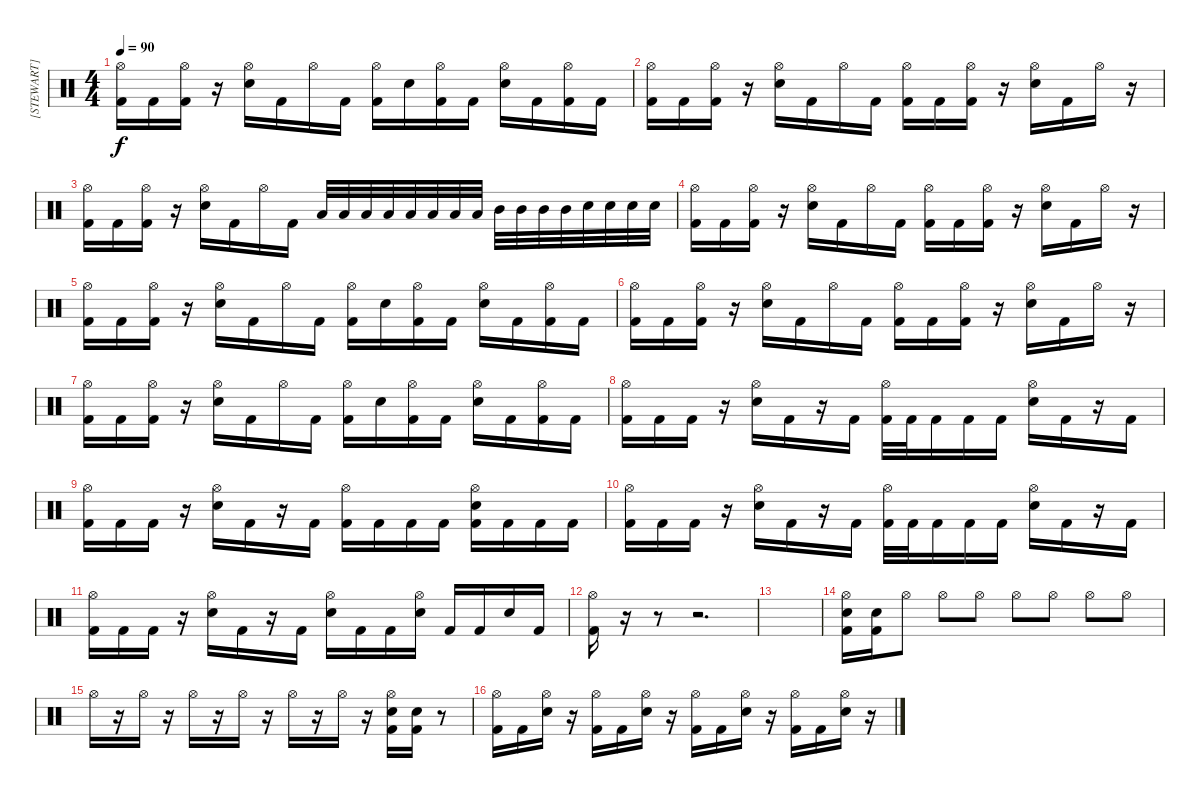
\track ("[STEWART]" "[STEWART]") {instrument percussion}
\staff {score}
\articulation defaults
\ts (4 4)
\tempo 90
\clef neutral
\ks c
("Hi-Hat (open)" "Kick (hit) 2").16{dy f} "Kick (hit) 2".16 ("Hi-Hat (open)" "Kick (hit) 2").16 r.16 ("Hi-Hat (open)" "Snare (hit) 2").16 "Kick (hit) 2".16 "Hi-Hat (open)".16 "Kick (hit) 2".16 ("Hi-Hat (open)" "Kick (hit) 2").16 "Snare (hit) 2".16 ("Hi-Hat (open)" "Kick (hit) 2").16 "Kick (hit) 2".16 ("Hi-Hat (open)" "Snare (hit) 2").16 "Kick (hit) 2".16 ("Hi-Hat (open)" "Kick (hit) 2").16 "Kick (hit) 2".16 |
("Hi-Hat (open)" "Kick (hit) 2").16 "Kick (hit) 2".16 ("Hi-Hat (open)" "Kick (hit) 2").16 r.16 ("Hi-Hat (open)" "Snare (hit) 2").16 "Kick (hit) 2".16 "Hi-Hat (open)".16 "Kick (hit) 2".16 ("Hi-Hat (open)" "Kick (hit) 2").16 "Kick (hit) 2".16 ("Hi-Hat (open)" "Kick (hit) 2").16 r.16 ("Hi-Hat (open)" "Snare (hit) 2").16 "Kick (hit) 2".16 "Hi-Hat (open)".16 r.16 |
("Hi-Hat (open)" "Kick (hit) 2").16 "Kick (hit) 2".16 ("Hi-Hat (open)" "Kick (hit) 2").16 r.16 ("Hi-Hat (open)" "Snare (hit) 2").16 "Kick (hit) 2".16 "Hi-Hat (open)".16 "Kick (hit) 2".16 "Low Floor Tom (hit)".32 "Low Floor Tom (hit)".32 "Low Floor Tom (hit)".32 "Low Floor Tom (hit)".32 "Low Tom (hit)".32 "Low Tom (hit)".32 "Low Tom (hit)".32 "Low Tom (hit)".32 "Mid Tom (hit)".32 "Mid Tom (hit)".32 "Mid Tom (hit)".32 "Mid Tom (hit)".32 "Snare (hit) 2".32 "Snare (hit) 2".32 "Snare (hit) 2".32 "Snare (hit) 2".32 |
("Hi-Hat (open)" "Kick (hit) 2").16 "Kick (hit) 2".16 ("Hi-Hat (open)" "Kick (hit) 2").16 r.16 ("Hi-Hat (open)" "Snare (hit) 2").16 "Kick (hit) 2".16 "Hi-Hat (open)".16 "Kick (hit) 2".16 ("Hi-Hat (open)" "Kick (hit) 2").16 "Kick (hit) 2".16 ("Hi-Hat (open)" "Kick (hit) 2").16 r.16 ("Hi-Hat (open)" "Snare (hit) 2").16 "Kick (hit) 2".16 "Hi-Hat (open)".16 r.16 |
("Hi-Hat (open)" "Kick (hit) 2").16 "Kick (hit) 2".16 ("Hi-Hat (open)" "Kick (hit) 2").16 r.16 ("Hi-Hat (open)" "Snare (hit) 2").16 "Kick (hit) 2".16 "Hi-Hat (open)".16 "Kick (hit) 2".16 ("Hi-Hat (open)" "Kick (hit) 2").16 "Snare (hit) 2".16 ("Hi-Hat (open)" "Kick (hit) 2").16 "Kick (hit) 2".16 ("Hi-Hat (open)" "Snare (hit) 2").16 "Kick (hit) 2".16 ("Hi-Hat (open)" "Kick (hit) 2").16 "Kick (hit) 2".16 |
("Hi-Hat (open)" "Kick (hit) 2").16 "Kick (hit) 2".16 ("Hi-Hat (open)" "Kick (hit) 2").16 r.16 ("Hi-Hat (open)" "Snare (hit) 2").16 "Kick (hit) 2".16 "Hi-Hat (open)".16 "Kick (hit) 2".16 ("Hi-Hat (open)" "Kick (hit) 2").16 "Kick (hit) 2".16 ("Hi-Hat (open)" "Kick (hit) 2").16 r.16 ("Hi-Hat (open)" "Snare (hit) 2").16 "Kick (hit) 2".16 "Hi-Hat (open)".16 r.16 |
("Hi-Hat (open)" "Kick (hit) 2").16 "Kick (hit) 2".16 ("Hi-Hat (open)" "Kick (hit) 2").16 r.16 ("Hi-Hat (open)" "Snare (hit) 2").16 "Kick (hit) 2".16 "Hi-Hat (open)".16 "Kick (hit) 2".16 ("Hi-Hat (open)" "Kick (hit) 2").16 "Snare (hit) 2".16 ("Hi-Hat (open)" "Kick (hit) 2").16 "Kick (hit) 2".16 ("Hi-Hat (open)" "Snare (hit) 2").16 "Kick (hit) 2".16 ("Hi-Hat (open)" "Kick (hit) 2").16 "Kick (hit) 2".16 |
("Hi-Hat (open)" "Kick (hit) 2").16 "Kick (hit) 2".16 "Kick (hit) 2".16 r.16 ("Hi-Hat (open)" "Snare (hit) 2").16 "Kick (hit) 2".16 r.16 "Kick (hit) 2".16 ("Hi-Hat (open)" "Kick (hit) 2").32 "Kick (hit) 2".32 "Kick (hit) 2".16 "Kick (hit) 2".16 "Kick (hit) 2".16 ("Hi-Hat (open)" "Snare (hit) 2").16 "Kick (hit) 2".16 r.16 "Kick (hit) 2".16 |
("Hi-Hat (open)" "Kick (hit) 2").16 "Kick (hit) 2".16 "Kick (hit) 2".16 r.16 ("Hi-Hat (open)" "Snare (hit) 2").16 "Kick (hit) 2".16 r.16 "Kick (hit) 2".16 ("Hi-Hat (open)" "Kick (hit) 2").16 "Kick (hit) 2".16 "Kick (hit) 2".16 "Kick (hit) 2".16 ("Hi-Hat (open)" "Snare (hit) 2" "Kick (hit) 2").16 "Kick (hit) 2".16 "Kick (hit) 2".16 "Kick (hit) 2".16 |
("Hi-Hat (open)" "Kick (hit) 2").16 "Kick (hit) 2".16 "Kick (hit) 2".16 r.16 ("Hi-Hat (open)" "Snare (hit) 2").16 "Kick (hit) 2".16 r.16 "Kick (hit) 2".16 ("Hi-Hat (open)" "Kick (hit) 2").32 "Kick (hit) 2".32 "Kick (hit) 2".16 "Kick (hit) 2".16 "Kick (hit) 2".16 ("Hi-Hat (open)" "Snare (hit) 2").16 "Kick (hit) 2".16 r.16 "Kick (hit) 2".16 |
("Hi-Hat (open)" "Kick (hit) 2").16 "Kick (hit) 2".16 "Kick (hit) 2".16 r.16 ("Hi-Hat (open)" "Snare (hit) 2").16 "Kick (hit) 2".16 r.16 "Kick (hit) 2".16 ("Hi-Hat (open)" "Snare (hit) 2").16 "Kick (hit) 2".16 "Kick (hit) 2".16 ("Hi-Hat (open)" "Snare (hit) 2").16 "Kick (hit) 2".16 "Kick (hit) 2".16 "Snare (hit) 2".16 "Kick (hit) 2".16 |
("Hi-Hat (open)" "Kick (hit) 2").16 r.16 r.8 r.2{d} |
|
("Hi-Hat (open)" "Snare (hit) 2" "Kick (hit) 2").16 ("Snare (hit) 2" "Kick (hit) 2").16 "Hi-Hat (open)".8 "Hi-Hat (open)".8 "Hi-Hat (open)".8 "Hi-Hat (open)".8 "Hi-Hat (open)".8 "Hi-Hat (open)".8 "Hi-Hat (open)".8 |
"Hi-Hat (open)".16 r.16 "Hi-Hat (open)".16 r.16 "Hi-Hat (open)".16 r.16 "Hi-Hat (open)".16 r.16 "Hi-Hat (open)".16 r.16 "Hi-Hat (open)".16 r.16 ("Hi-Hat (open)" "Snare (hit) 2" "Kick (hit) 2").16 ("Snare (hit) 2" "Kick (hit) 2").16 r.8 |
("Hi-Hat (open)" "Kick (hit) 2").16 "Kick (hit) 2".16 ("Hi-Hat (open)" "Snare (hit) 2").16 r.16 ("Hi-Hat (open)" "Kick (hit) 2").16 "Kick (hit) 2".16 ("Hi-Hat (open)" "Snare (hit) 2").16 r.16 ("Hi-Hat (open)" "Kick (hit) 2").16 "Kick (hit) 2".16 ("Hi-Hat (open)" "Snare (hit) 2").16 r.16 ("Hi-Hat (open)" "Kick (hit) 2").16 "Kick (hit) 2".16 ("Hi-Hat (open)" "Snare (hit) 2").16 r.16
